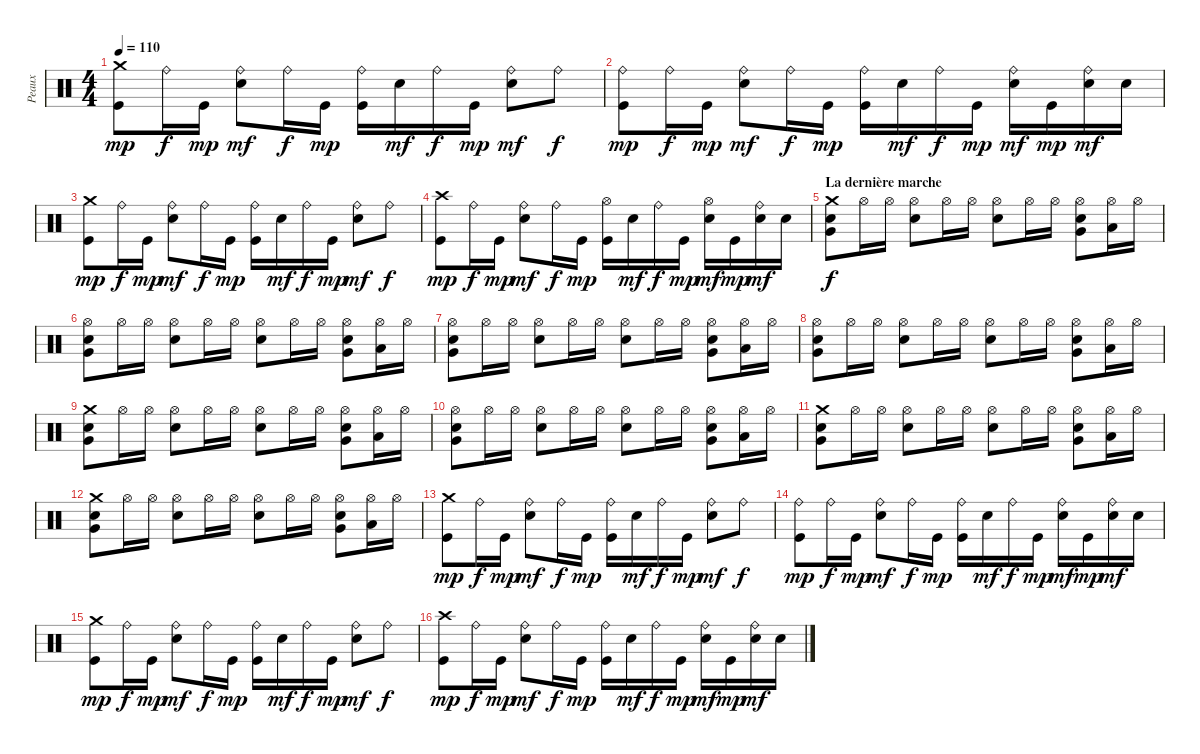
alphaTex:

\track ("Peaux" "Peaux") {instrument percussion}
\staff {score}
\articulation defaults
\ts (4 4)
\tempo 110
\clef neutral
\ks c
("Crash medium (hit)" "Kick (hit)").8{dy mp} "Ride (bell)".16{dy f} "Kick (hit)".16{dy mp} ("Ride (bell)" "Snare (hit) 2").8{dy mf} "Ride (bell)".16{dy f} "Kick (hit)".16{dy mp} ("Ride (bell)" "Kick (hit)").16 "Snare (hit) 2".16{dy mf} "Ride (bell)".16{dy f} "Kick (hit)".16{dy mp} ("Ride (bell)" "Snare (hit) 2").8{dy mf} "Ride (bell)".8{dy f} |
("Ride (bell)" "Kick (hit)").8{dy mp} "Ride (bell)".16{dy f} "Kick (hit)".16{dy mp} ("Ride (bell)" "Snare (hit) 2").8{dy mf} "Ride (bell)".16{dy f} "Kick (hit)".16{dy mp} ("Ride (bell)" "Kick (hit)").16 "Snare (hit) 2".16{dy mf} "Ride (bell)".16{dy f} "Kick (hit)".16{dy mp} ("Ride (bell)" "Snare (hit) 2").16{dy mf} "Kick (hit)".16{dy mp} ("Ride (bell)" "Snare (hit) 2").16{dy mf} "Snare (hit) 2".16 |
("Crash medium (hit)" "Kick (hit)").8{dy mp} "Ride (bell)".16{dy f} "Kick (hit)".16{dy mp} ("Ride (bell)" "Snare (hit) 2").8{dy mf} "Ride (bell)".16{dy f} "Kick (hit)".16{dy mp} ("Ride (bell)" "Kick (hit)").16 "Snare (hit) 2".16{dy mf} "Ride (bell)".16{dy f} "Kick (hit)".16{dy mp} ("Ride (bell)" "Snare (hit) 2").8{dy mf} "Ride (bell)".8{dy f} |
("Crash high (hit)" "Kick (hit)").8{dy mp} "Ride (bell)".16{dy f} "Kick (hit)".16{dy mp} ("Ride (bell)" "Snare (hit) 2").8{dy mf} "Ride (bell)".16{dy f} "Kick (hit)".16{dy mp} ("Hi-Hat (open)" "Kick (hit)").16 "Snare (hit) 2".16{dy mf} "Ride (bell)".16{dy f} "Kick (hit)".16{dy mp} ("Hi-Hat (open)" "Snare (hit) 2").16{dy mf} "Kick (hit)".16{dy mp} ("Ride (bell)" "Snare (hit) 2").16{dy mf} "Snare (hit) 2".16 |
\section ("" "La dernière marche")
("Crash medium (hit)" "Electric Snare (hit)" "Very Low Tom (hit)").8{dy f} "Hi-Hat (open)".16 "Hi-Hat (open)".16 ("Hi-Hat (open)" "Electric Snare (hit)").8 "Hi-Hat (open)".16 "Hi-Hat (open)".16 ("Hi-Hat (open)" "Electric Snare (hit)").8 "Hi-Hat (open)".16 "Hi-Hat (open)".16 ("Electric Snare (hit)" "Hi-Hat (open)" "Very Low Tom (hit)").8 ("Low Tom (hit)" "Hi-Hat (open)").16 "Hi-Hat (open)".16 |
("Hi-Hat (open)" "Electric Snare (hit)" "Very Low Tom (hit)").8 "Hi-Hat (open)".16 "Hi-Hat (open)".16 ("Hi-Hat (open)" "Electric Snare (hit)").8 "Hi-Hat (open)".16 "Hi-Hat (open)".16 ("Hi-Hat (open)" "Electric Snare (hit)").8 "Hi-Hat (open)".16 "Hi-Hat (open)".16 ("Electric Snare (hit)" "Hi-Hat (open)" "Very Low Tom (hit)").8 ("Low Tom (hit)" "Hi-Hat (open)").16 "Hi-Hat (open)".16 |
("Hi-Hat (open)" "Electric Snare (hit)" "Very Low Tom (hit)").8 "Hi-Hat (open)".16 "Hi-Hat (open)".16 ("Hi-Hat (open)" "Electric Snare (hit)").8 "Hi-Hat (open)".16 "Hi-Hat (open)".16 ("Hi-Hat (open)" "Electric Snare (hit)").8 "Hi-Hat (open)".16 "Hi-Hat (open)".16 ("Electric Snare (hit)" "Hi-Hat (open)" "Very Low Tom (hit)").8 ("Low Tom (hit)" "Hi-Hat (open)").16 "Hi-Hat (open)".16 |
("Hi-Hat (open)" "Electric Snare (hit)" "Very Low Tom (hit)").8 "Hi-Hat (open)".16 "Hi-Hat (open)".16 ("Hi-Hat (open)" "Electric Snare (hit)").8 "Hi-Hat (open)".16 "Hi-Hat (open)".16 ("Hi-Hat (open)" "Electric Snare (hit)").8 "Hi-Hat (open)".16 "Hi-Hat (open)".16 ("Electric Snare (hit)" "Hi-Hat (open)" "Very Low Tom (hit)").8 ("Low Tom (hit)" "Hi-Hat (open)").16 "Hi-Hat (open)".16 |
("Crash medium (hit)" "Electric Snare (hit)" "Very Low Tom (hit)").8 "Hi-Hat (open)".16 "Hi-Hat (open)".16 ("Hi-Hat (open)" "Electric Snare (hit)").8 "Hi-Hat (open)".16 "Hi-Hat (open)".16 ("Hi-Hat (open)" "Electric Snare (hit)").8 "Hi-Hat (open)".16 "Hi-Hat (open)".16 ("Electric Snare (hit)" "Hi-Hat (open)" "Very Low Tom (hit)").8 ("Low Tom (hit)" "Hi-Hat (open)").16 "Hi-Hat (open)".16 |
("Hi-Hat (open)" "Electric Snare (hit)" "Very Low Tom (hit)").8 "Hi-Hat (open)".16 "Hi-Hat (open)".16 ("Hi-Hat (open)" "Electric Snare (hit)").8 "Hi-Hat (open)".16 "Hi-Hat (open)".16 ("Hi-Hat (open)" "Electric Snare (hit)").8 "Hi-Hat (open)".16 "Hi-Hat (open)".16 ("Electric Snare (hit)" "Hi-Hat (open)" "Very Low Tom (hit)").8 ("Low Tom (hit)" "Hi-Hat (open)").16 "Hi-Hat (open)".16 |
("Crash medium (hit)" "Electric Snare (hit)" "Very Low Tom (hit)").8 "Hi-Hat (open)".16 "Hi-Hat (open)".16 ("Hi-Hat (open)" "Electric Snare (hit)").8 "Hi-Hat (open)".16 "Hi-Hat (open)".16 ("Hi-Hat (open)" "Electric Snare (hit)").8 "Hi-Hat (open)".16 "Hi-Hat (open)".16 ("Electric Snare (hit)" "Hi-Hat (open)" "Very Low Tom (hit)").8 ("Low Tom (hit)" "Hi-Hat (open)").16 "Hi-Hat (open)".16 |
("Crash medium (hit)" "Electric Snare (hit)" "Very Low Tom (hit)").8 "Hi-Hat (open)".16 "Hi-Hat (open)".16 ("Hi-Hat (open)" "Electric Snare (hit)").8 "Hi-Hat (open)".16 "Hi-Hat (open)".16 ("Hi-Hat (open)" "Electric Snare (hit)").8 "Hi-Hat (open)".16 "Hi-Hat (open)".16 ("Electric Snare (hit)" "Hi-Hat (open)" "Very Low Tom (hit)").8 ("Low Tom (hit)" "Hi-Hat (open)").16 "Hi-Hat (open)".16 |
("Crash medium (hit)" "Kick (hit)").8{dy mp} "Ride (bell)".16{dy f} "Kick (hit)".16{dy mp} ("Ride (bell)" "Snare (hit) 2").8{dy mf} "Ride (bell)".16{dy f} "Kick (hit)".16{dy mp} ("Ride (bell)" "Kick (hit)").16 "Snare (hit) 2".16{dy mf} "Ride (bell)".16{dy f} "Kick (hit)".16{dy mp} ("Ride (bell)" "Snare (hit) 2").8{dy mf} "Ride (bell)".8{dy f} |
("Ride (bell)" "Kick (hit)").8{dy mp} "Ride (bell)".16{dy f} "Kick (hit)".16{dy mp} ("Ride (bell)" "Snare (hit) 2").8{dy mf} "Ride (bell)".16{dy f} "Kick (hit)".16{dy mp} ("Ride (bell)" "Kick (hit)").16 "Snare (hit) 2".16{dy mf} "Ride (bell)".16{dy f} "Kick (hit)".16{dy mp} ("Ride (bell)" "Snare (hit) 2").16{dy mf} "Kick (hit)".16{dy mp} ("Ride (bell)" "Snare (hit) 2").16{dy mf} "Snare (hit) 2".16 |
("Crash medium (hit)" "Kick (hit)").8{dy mp} "Ride (bell)".16{dy f} "Kick (hit)".16{dy mp} ("Ride (bell)" "Snare (hit) 2").8{dy mf} "Ride (bell)".16{dy f} "Kick (hit)".16{dy mp} ("Ride (bell)" "Kick (hit)").16 "Snare (hit) 2".16{dy mf} "Ride (bell)".16{dy f} "Kick (hit)".16{dy mp} ("Ride (bell)" "Snare (hit) 2").8{dy mf} "Ride (bell)".8{dy f} |
("Crash high (hit)" "Kick (hit)").8{dy mp} "Ride (bell)".16{dy f} "Kick (hit)".16{dy mp} ("Ride (bell)" "Snare (hit) 2").8{dy mf} "Ride (bell)".16{dy f} "Kick (hit)".16{dy mp} ("Ride (bell)" "Kick (hit)").16 "Snare (hit) 2".16{dy mf} "Ride (bell)".16{dy f} "Kick (hit)".16{dy mp} ("Ride (bell)" "Snare (hit) 2").16{dy mf} "Kick (hit)".16{dy mp} ("Ride (bell)" "Snare (hit) 2").16{dy mf} "Snare (hit) 2".16
